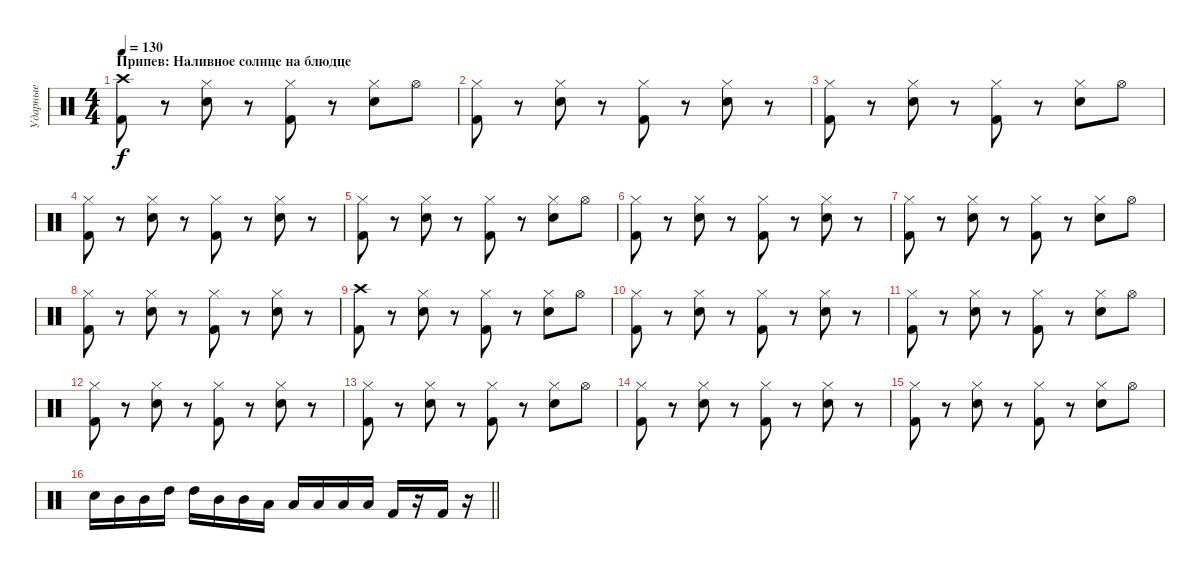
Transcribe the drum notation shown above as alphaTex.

\track ("Ударные" "Ударные") {instrument percussion}
\staff {score}
\articulation defaults
\ts (4 4)
\section ("" "Припев: Наливное солнце на блюдце")
\tempo 130
\clef neutral
\ks c
("Crash high (hit)" "Kick (hit) 2").8{dy f} r.8 ("Hi-Hat (closed)" "Snare (hit) 2").8 r.8 ("Hi-Hat (closed)" "Kick (hit) 2").8 r.8 ("Hi-Hat (closed)" "Snare (hit) 2").8 "Hi-Hat (open)".8 |
("Hi-Hat (closed)" "Kick (hit) 2").8 r.8 ("Hi-Hat (closed)" "Snare (hit) 2").8 r.8 ("Hi-Hat (closed)" "Kick (hit) 2").8 r.8 ("Hi-Hat (closed)" "Snare (hit) 2").8 r.8 |
("Hi-Hat (closed)" "Kick (hit) 2").8 r.8 ("Hi-Hat (closed)" "Snare (hit) 2").8 r.8 ("Hi-Hat (closed)" "Kick (hit) 2").8 r.8 ("Hi-Hat (closed)" "Snare (hit) 2").8 "Hi-Hat (open)".8 |
("Hi-Hat (closed)" "Kick (hit) 2").8 r.8 ("Hi-Hat (closed)" "Snare (hit) 2").8 r.8 ("Hi-Hat (closed)" "Kick (hit) 2").8 r.8 ("Hi-Hat (closed)" "Snare (hit) 2").8 r.8 |
("Hi-Hat (closed)" "Kick (hit) 2").8 r.8 ("Hi-Hat (closed)" "Snare (hit) 2").8 r.8 ("Hi-Hat (closed)" "Kick (hit) 2").8 r.8 ("Hi-Hat (closed)" "Snare (hit) 2").8 "Hi-Hat (open)".8 |
("Hi-Hat (closed)" "Kick (hit) 2").8 r.8 ("Hi-Hat (closed)" "Snare (hit) 2").8 r.8 ("Hi-Hat (closed)" "Kick (hit) 2").8 r.8 ("Hi-Hat (closed)" "Snare (hit) 2").8 r.8 |
("Hi-Hat (closed)" "Kick (hit) 2").8 r.8 ("Hi-Hat (closed)" "Snare (hit) 2").8 r.8 ("Hi-Hat (closed)" "Kick (hit) 2").8 r.8 ("Hi-Hat (closed)" "Snare (hit) 2").8 "Hi-Hat (open)".8 |
("Hi-Hat (closed)" "Kick (hit) 2").8 r.8 ("Hi-Hat (closed)" "Snare (hit) 2").8 r.8 ("Hi-Hat (closed)" "Kick (hit) 2").8 r.8 ("Hi-Hat (closed)" "Snare (hit) 2").8 r.8 |
("Crash high (hit)" "Kick (hit) 2").8 r.8 ("Hi-Hat (closed)" "Snare (hit) 2").8 r.8 ("Hi-Hat (closed)" "Kick (hit) 2").8 r.8 ("Hi-Hat (closed)" "Snare (hit) 2").8 "Hi-Hat (open)".8 |
("Hi-Hat (closed)" "Kick (hit) 2").8 r.8 ("Hi-Hat (closed)" "Snare (hit) 2").8 r.8 ("Hi-Hat (closed)" "Kick (hit) 2").8 r.8 ("Hi-Hat (closed)" "Snare (hit) 2").8 r.8 |
("Hi-Hat (closed)" "Kick (hit) 2").8 r.8 ("Hi-Hat (closed)" "Snare (hit) 2").8 r.8 ("Hi-Hat (closed)" "Kick (hit) 2").8 r.8 ("Hi-Hat (closed)" "Snare (hit) 2").8 "Hi-Hat (open)".8 |
("Hi-Hat (closed)" "Kick (hit) 2").8 r.8 ("Hi-Hat (closed)" "Snare (hit) 2").8 r.8 ("Hi-Hat (closed)" "Kick (hit) 2").8 r.8 ("Hi-Hat (closed)" "Snare (hit) 2").8 r.8 |
("Hi-Hat (closed)" "Kick (hit) 2").8 r.8 ("Hi-Hat (closed)" "Snare (hit) 2").8 r.8 ("Hi-Hat (closed)" "Kick (hit) 2").8 r.8 ("Hi-Hat (closed)" "Snare (hit) 2").8 "Hi-Hat (open)".8 |
("Hi-Hat (closed)" "Kick (hit) 2").8 r.8 ("Hi-Hat (closed)" "Snare (hit) 2").8 r.8 ("Hi-Hat (closed)" "Kick (hit) 2").8 r.8 ("Hi-Hat (closed)" "Snare (hit) 2").8 r.8 |
("Hi-Hat (closed)" "Kick (hit) 2").8 r.8 ("Hi-Hat (closed)" "Snare (hit) 2").8 r.8 ("Hi-Hat (closed)" "Kick (hit) 2").8 r.8 ("Hi-Hat (closed)" "Snare (hit) 2").8 "Hi-Hat (open)".8 |
\barLineRight lightlight "Snare (hit) 2".16 "Mid Tom (hit)".16 "Mid Tom (hit)".16 "High Tom (hit)".16 "High Tom (hit)".16 "Mid Tom (hit)".16 "Mid Tom (hit)".16 "Low Tom (hit)".16 "Low Tom (hit)".16 "Low Tom (hit)".16 "Low Tom (hit)".16 "Low Tom (hit)".16 "Kick (hit) 2".16
r.16 "Kick (hit) 2".16 r.16
